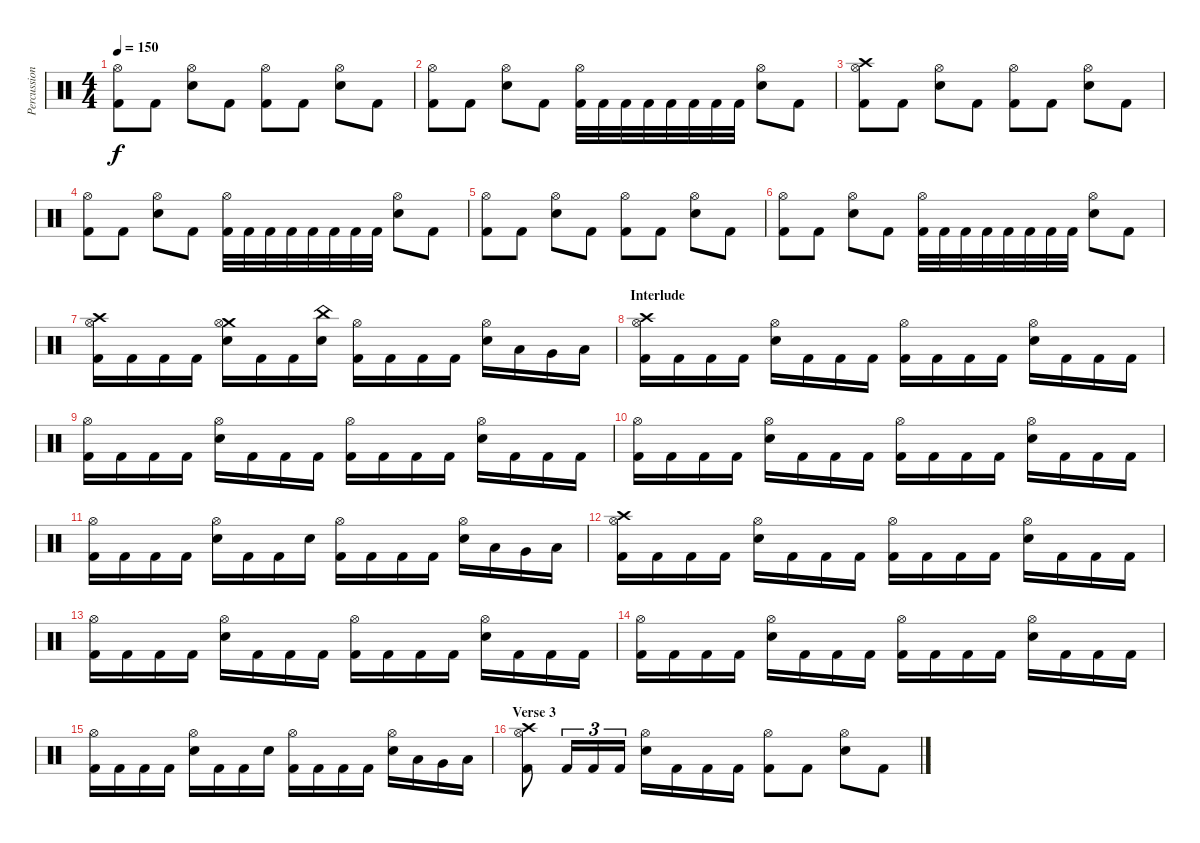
\track ("Percussions" "Percussion") {instrument percussion}
\staff {score}
\articulation defaults
\ts (4 4)
\tempo 150
\clef neutral
\ks c
("Hi-Hat (open)" "Kick (hit) 2").8{dy f} "Kick (hit) 2".8 ("Hi-Hat (open)" "Electric Snare (hit)").8 "Kick (hit) 2".8 ("Hi-Hat (open)" "Kick (hit) 2").8 "Kick (hit) 2".8 ("Hi-Hat (open)" "Electric Snare (hit)").8 "Kick (hit) 2".8 |
("Hi-Hat (open)" "Kick (hit) 2").8 "Kick (hit) 2".8 ("Hi-Hat (open)" "Electric Snare (hit)").8 "Kick (hit) 2".8 ("Hi-Hat (open)" "Kick (hit) 2").32 "Kick (hit) 2".32 "Kick (hit) 2".32 "Kick (hit) 2".32 "Kick (hit) 2".32 "Kick (hit) 2".32 "Kick (hit) 2".32 "Kick (hit) 2".32 ("Hi-Hat (open)" "Electric Snare (hit)").8 "Kick (hit) 2".8 |
("Crash high (hit)" "Hi-Hat (open)" "Kick (hit) 2").8 "Kick (hit) 2".8 ("Hi-Hat (open)" "Electric Snare (hit)").8 "Kick (hit) 2".8 ("Hi-Hat (open)" "Kick (hit) 2").8 "Kick (hit) 2".8 ("Hi-Hat (open)" "Electric Snare (hit)").8 "Kick (hit) 2".8 |
("Hi-Hat (open)" "Kick (hit) 2").8 "Kick (hit) 2".8 ("Hi-Hat (open)" "Electric Snare (hit)").8 "Kick (hit) 2".8 ("Hi-Hat (open)" "Kick (hit) 2").32 "Kick (hit) 2".32 "Kick (hit) 2".32 "Kick (hit) 2".32 "Kick (hit) 2".32 "Kick (hit) 2".32 "Kick (hit) 2".32 "Kick (hit) 2".32 ("Hi-Hat (open)" "Electric Snare (hit)").8 "Kick (hit) 2".8 |
("Hi-Hat (open)" "Kick (hit) 2").8 "Kick (hit) 2".8 ("Hi-Hat (open)" "Electric Snare (hit)").8 "Kick (hit) 2".8 ("Hi-Hat (open)" "Kick (hit) 2").8 "Kick (hit) 2".8 ("Hi-Hat (open)" "Electric Snare (hit)").8 "Kick (hit) 2".8 |
("Hi-Hat (open)" "Kick (hit) 2").8 "Kick (hit) 2".8 ("Hi-Hat (open)" "Electric Snare (hit)").8 "Kick (hit) 2".8 ("Hi-Hat (open)" "Kick (hit) 2").32 "Kick (hit) 2".32 "Kick (hit) 2".32 "Kick (hit) 2".32 "Kick (hit) 2".32 "Kick (hit) 2".32 "Kick (hit) 2".32 "Kick (hit) 2".32 ("Hi-Hat (open)" "Electric Snare (hit)").8 "Kick (hit) 2".8 |
("Crash high (hit)" "Hi-Hat (open)" "Kick (hit) 2").16 "Kick (hit) 2".16 "Kick (hit) 2".16 "Kick (hit) 2".16 ("Crash medium (hit)" "Hi-Hat (open)" "Electric Snare (hit)").16 "Kick (hit) 2".16 "Kick (hit) 2".16 ("China (hit)" "Electric Snare (hit)").16 ("Hi-Hat (open)" "Kick (hit) 2").16 "Kick (hit) 2".16 "Kick (hit) 2".16 "Kick (hit) 2".16 ("Hi-Hat (open)" "Electric Snare (hit)").16 "Low Tom (hit)".16 "Very Low Tom (hit)".16 "Low Floor Tom (hit)".16 |
\section ("" "Interlude")
("Crash high (hit)" "Hi-Hat (open)" "Kick (hit) 2").16 "Kick (hit) 2".16 "Kick (hit) 2".16 "Kick (hit) 2".16 ("Hi-Hat (open)" "Electric Snare (hit)").16 "Kick (hit) 2".16 "Kick (hit) 2".16 "Kick (hit) 2".16 ("Hi-Hat (open)" "Kick (hit) 2").16 "Kick (hit) 2".16 "Kick (hit) 2".16 "Kick (hit) 2".16 ("Hi-Hat (open)" "Electric Snare (hit)").16 "Kick (hit) 2".16 "Kick (hit) 2".16 "Kick (hit) 2".16 |
("Hi-Hat (open)" "Kick (hit) 2").16 "Kick (hit) 2".16 "Kick (hit) 2".16 "Kick (hit) 2".16 ("Hi-Hat (open)" "Electric Snare (hit)").16 "Kick (hit) 2".16 "Kick (hit) 2".16 "Kick (hit) 2".16 ("Hi-Hat (open)" "Kick (hit) 2").16 "Kick (hit) 2".16 "Kick (hit) 2".16 "Kick (hit) 2".16 ("Hi-Hat (open)" "Electric Snare (hit)").16 "Kick (hit) 2".16 "Kick (hit) 2".16 "Kick (hit) 2".16 |
("Hi-Hat (open)" "Kick (hit) 2").16 "Kick (hit) 2".16 "Kick (hit) 2".16 "Kick (hit) 2".16 ("Hi-Hat (open)" "Electric Snare (hit)").16 "Kick (hit) 2".16 "Kick (hit) 2".16 "Kick (hit) 2".16 ("Hi-Hat (open)" "Kick (hit) 2").16 "Kick (hit) 2".16 "Kick (hit) 2".16 "Kick (hit) 2".16 ("Hi-Hat (open)" "Electric Snare (hit)").16 "Kick (hit) 2".16 "Kick (hit) 2".16 "Kick (hit) 2".16 |
("Hi-Hat (open)" "Kick (hit) 2").16 "Kick (hit) 2".16 "Kick (hit) 2".16 "Kick (hit) 2".16 ("Hi-Hat (open)" "Electric Snare (hit)").16 "Kick (hit) 2".16 "Kick (hit) 2".16 "Electric Snare (hit)".16 ("Hi-Hat (open)" "Kick (hit) 2").16 "Kick (hit) 2".16 "Kick (hit) 2".16 "Kick (hit) 2".16 ("Hi-Hat (open)" "Electric Snare (hit)").16 "Low Tom (hit)".16 "Very Low Tom (hit)".16 "Low Floor Tom (hit)".16 |
("Crash high (hit)" "Hi-Hat (open)" "Kick (hit) 2").16 "Kick (hit) 2".16 "Kick (hit) 2".16 "Kick (hit) 2".16 ("Hi-Hat (open)" "Electric Snare (hit)").16 "Kick (hit) 2".16 "Kick (hit) 2".16 "Kick (hit) 2".16 ("Hi-Hat (open)" "Kick (hit) 2").16 "Kick (hit) 2".16 "Kick (hit) 2".16 "Kick (hit) 2".16 ("Hi-Hat (open)" "Electric Snare (hit)").16 "Kick (hit) 2".16 "Kick (hit) 2".16 "Kick (hit) 2".16 |
("Hi-Hat (open)" "Kick (hit) 2").16 "Kick (hit) 2".16 "Kick (hit) 2".16 "Kick (hit) 2".16 ("Hi-Hat (open)" "Electric Snare (hit)").16 "Kick (hit) 2".16 "Kick (hit) 2".16 "Kick (hit) 2".16 ("Hi-Hat (open)" "Kick (hit) 2").16 "Kick (hit) 2".16 "Kick (hit) 2".16 "Kick (hit) 2".16 ("Hi-Hat (open)" "Electric Snare (hit)").16 "Kick (hit) 2".16 "Kick (hit) 2".16 "Kick (hit) 2".16 |
("Hi-Hat (open)" "Kick (hit) 2").16 "Kick (hit) 2".16 "Kick (hit) 2".16 "Kick (hit) 2".16 ("Hi-Hat (open)" "Electric Snare (hit)").16 "Kick (hit) 2".16 "Kick (hit) 2".16 "Kick (hit) 2".16 ("Hi-Hat (open)" "Kick (hit) 2").16 "Kick (hit) 2".16 "Kick (hit) 2".16 "Kick (hit) 2".16 ("Hi-Hat (open)" "Electric Snare (hit)").16 "Kick (hit) 2".16 "Kick (hit) 2".16 "Kick (hit) 2".16 |
("Hi-Hat (open)" "Kick (hit) 2").16 "Kick (hit) 2".16 "Kick (hit) 2".16 "Kick (hit) 2".16 ("Hi-Hat (open)" "Electric Snare (hit)").16 "Kick (hit) 2".16 "Kick (hit) 2".16 "Electric Snare (hit)".16 ("Hi-Hat (open)" "Kick (hit) 2").16 "Kick (hit) 2".16 "Kick (hit) 2".16 "Kick (hit) 2".16 ("Hi-Hat (open)" "Electric Snare (hit)").16 "Low Tom (hit)".16 "Very Low Tom (hit)".16 "Low Floor Tom (hit)".16 |
\section ("" "Verse 3")
("Crash high (hit)" "Hi-Hat (open)" "Kick (hit) 2").8 "Kick (hit) 2".16{tu (3 2)} "Kick (hit) 2".16{tu (3 2)} "Kick (hit) 2".16{tu (3 2)} ("Hi-Hat (open)" "Electric Snare (hit)").16 "Kick (hit) 2".16 "Kick (hit) 2".16 "Kick (hit) 2".16 ("Hi-Hat (open)" "Kick (hit) 2").8 "Kick (hit) 2".8 ("Hi-Hat (open)" "Electric Snare (hit)").8 "Kick (hit) 2".8
